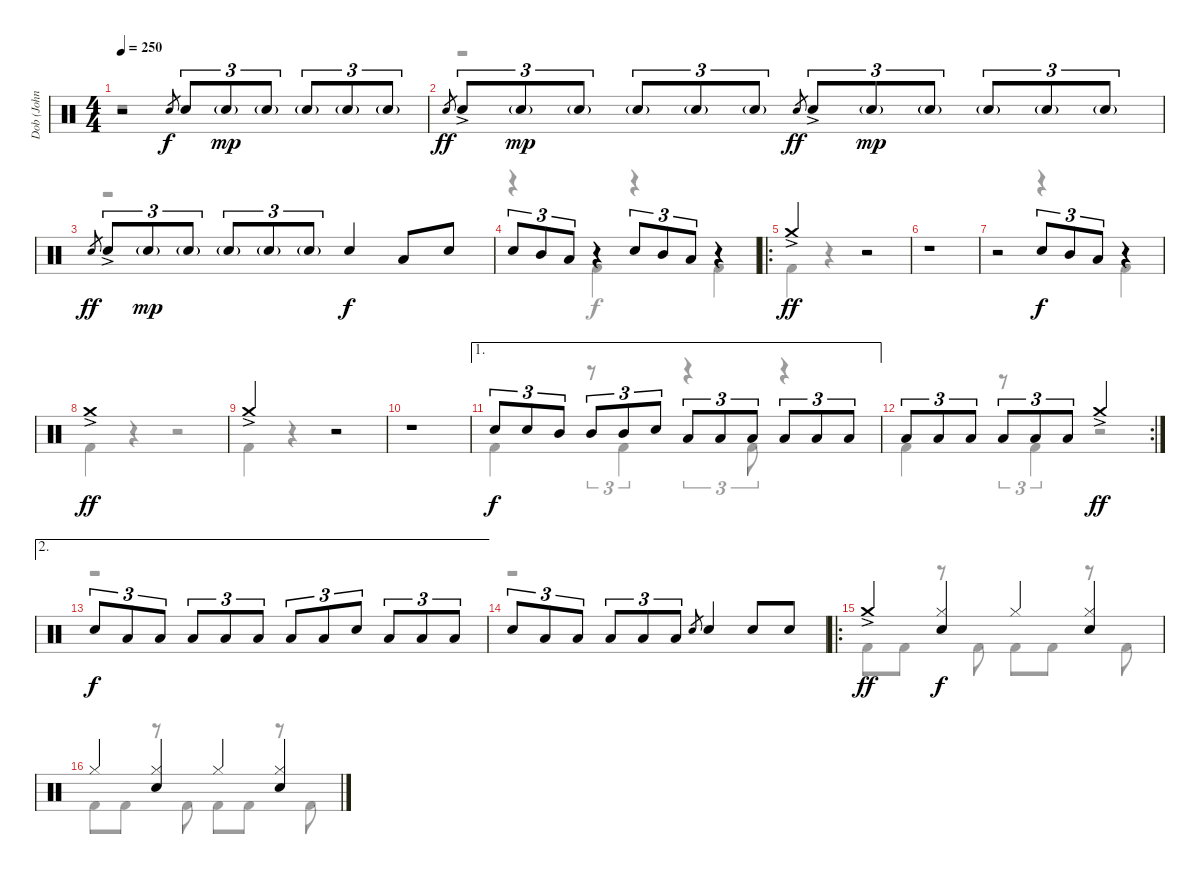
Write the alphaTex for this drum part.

\track ("Dob (John Macaluso)" "Dob (John ") {instrument percussion}
\staff {score}
\articulation defaults
\voice
\ts (4 4)
\tempo 250
\clef neutral
\ks c
r.2{dy f} "Electric Snare (hit)".8{gr} "Electric Snare (hit)".8{tu (3 2)} "Electric Snare (hit)"{g}.8{tu (3 2) dy mp} "Electric Snare (hit)"{g}.8{tu (3 2)} "Electric Snare (hit)"{g}.8{tu (3 2)} "Electric Snare (hit)"{g}.8{tu (3 2)} "Electric Snare (hit)"{g}.8{tu (3 2)} |
"Electric Snare (hit)".8{gr dy ff} "Electric Snare (hit)"{ac}.8{tu (3 2)} "Electric Snare (hit)"{g}.8{tu (3 2) dy mp} "Electric Snare (hit)"{g}.8{tu (3 2)} "Electric Snare (hit)"{g}.8{tu (3 2)} "Electric Snare (hit)"{g}.8{tu (3 2)} "Electric Snare (hit)"{g}.8{tu (3 2)} "Electric Snare (hit)".8{gr dy ff} "Electric Snare (hit)"{ac}.8{tu (3 2)} "Electric Snare (hit)"{g}.8{tu (3 2) dy mp} "Electric Snare (hit)"{g}.8{tu (3 2)} "Electric Snare (hit)"{g}.8{tu (3 2)} "Electric Snare (hit)"{g}.8{tu (3 2)} "Electric Snare (hit)"{g}.8{tu (3 2)} |
"Electric Snare (hit)".8{gr dy ff} "Electric Snare (hit)"{ac}.8{tu (3 2)} "Electric Snare (hit)"{g}.8{tu (3 2) dy mp} "Electric Snare (hit)"{g}.8{tu (3 2)} "Electric Snare (hit)"{g}.8{tu (3 2)} "Electric Snare (hit)"{g}.8{tu (3 2)} "Electric Snare (hit)"{g}.8{tu (3 2)} "Electric Snare (hit)".4{dy f} "Low Tom (hit)".8 "Electric Snare (hit)".8 |
"Electric Snare (hit)".8{tu (3 2)} "Mid Tom (hit)".8{tu (3 2)} "Low Tom (hit)".8{tu (3 2)} r.4 "Electric Snare (hit)".8{tu (3 2)} "Mid Tom (hit)".8{tu (3 2)} "Low Tom (hit)".8{tu (3 2)} r.4 |
\ro "Crash medium (hit)"{ac}.2{dy ff}
r.2 |
r.1 |
r.2 "Electric Snare (hit)".8{tu (3 2) dy f} "Mid Tom (hit)".8{tu (3 2)} "Low Tom (hit)".8{tu (3 2)} r.4 |
"Crash medium (hit)"{ac}.1{dy ff} |
"Crash medium (hit)"{ac}.2 r.2 |
r.1 |
\ae 1 "Electric Snare (hit)".8{tu (3 2) dy f} "Electric Snare (hit)".8{tu (3 2)} "Mid Tom (hit)".8{tu (3 2)} "Mid Tom (hit)".8{tu (3 2)} "Mid Tom (hit)".8{tu (3 2)} "Electric Snare (hit)".8{tu (3 2)} "Low Tom (hit)".8{tu (3 2)} "Low Tom (hit)".8{tu (3 2)} "Low Tom (hit)".8{tu (3 2)} "Low Tom (hit)".8{tu (3 2)} "Low Tom (hit)".8{tu (3 2)} "Low Tom (hit)".8{tu (3 2)}
|
\rc 2 "Low Tom (hit)".8{tu (3 2)} "Low Tom (hit)".8{tu (3 2)} "Low Tom (hit)".8{tu (3 2)} "Low Tom (hit)".8{tu (3 2)} "Low Tom (hit)".8{tu (3 2)} "Low Tom (hit)".8{tu (3 2)} "Crash medium (hit)"{ac}.2{dy ff}
|
\ae 2 "Electric Snare (hit)".8{tu (3 2) dy f} "Low Tom (hit)".8{tu (3 2)} "Low Tom (hit)".8{tu (3 2)} "Low Tom (hit)".8{tu (3 2)} "Low Tom (hit)".8{tu (3 2)} "Low Tom (hit)".8{tu (3 2)} "Low Tom (hit)".8{tu (3 2)} "Low Tom (hit)".8{tu (3 2)} "Electric Snare (hit)".8{tu (3 2)} "Low Tom (hit)".8{tu (3 2)} "Low Tom (hit)".8{tu (3 2)} "Low Tom (hit)".8{tu (3 2)}
|
"Electric Snare (hit)".8{tu (3 2)} "Low Tom (hit)".8{tu (3 2)} "Low Tom (hit)".8{tu (3 2)} "Low Tom (hit)".8{tu (3 2)} "Low Tom (hit)".8{tu (3 2)} "Low Tom (hit)".8{tu (3 2)} "Electric Snare (hit)".8{gr} "Electric Snare (hit)".4 "Electric Snare (hit)".8 "Electric Snare (hit)".8 |
\ro "Crash medium (hit)"{ac}.4{dy ff}
("Hi-Hat (closed)" "Electric Snare (hit)").4{dy f} "Hi-Hat (closed)".4 ("Hi-Hat (closed)" "Electric Snare (hit)").4 |
"Hi-Hat (closed)".4 ("Hi-Hat (closed)" "Electric Snare (hit)").4 "Hi-Hat (closed)".4 ("Hi-Hat (closed)" "Electric Snare (hit)").4
\voice
\clef neutral
\ottava regular
\simile none
\ks c
r.1{dy f} |
r.1 |
r.1 |
r.4 "Kick (hit) 2".4 r.4 "Kick (hit) 2".4 |
"Kick (hit) 2".4 r.4 r.2 |
r.1 |
r.2 r.4 "Kick (hit) 2".4 |
"Kick (hit) 2".4 r.4 r.2 |
"Kick (hit) 2".4 r.4 r.2 |
r.1 |
"Kick (hit) 2".4 r.8{tu (3 2)} "Kick (hit) 2".4{tu (3 2)} r.4{tu (3 2)} "Kick (hit) 2".8{tu (3 2)} r.4 |
"Kick (hit) 2".4 r.8{tu (3 2)} "Kick (hit) 2".4{tu (3 2)} r.2 |
r.1 |
r.1 |
"Kick (hit) 2".8 "Kick (hit) 2".8 r.8 "Kick (hit) 2".8 "Kick (hit) 2".8 "Kick (hit) 2".8 r.8 "Kick (hit) 2".8 |
"Kick (hit) 2".8 "Kick (hit) 2".8 r.8 "Kick (hit) 2".8 "Kick (hit) 2".8 "Kick (hit) 2".8 r.8 "Kick (hit) 2".8
